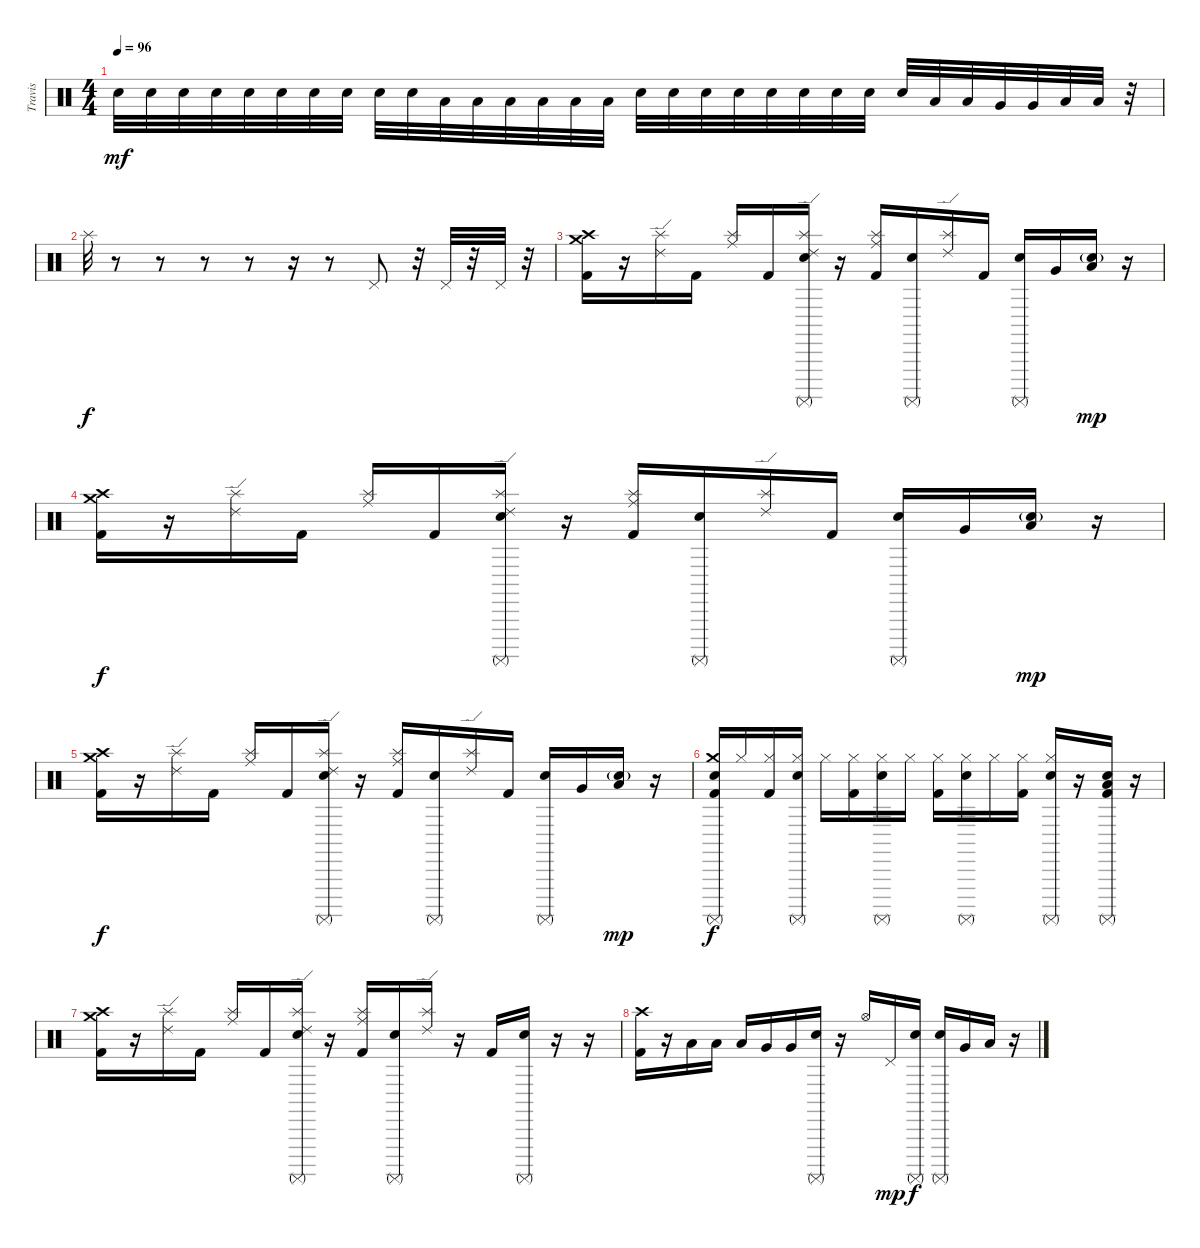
\track ("Travis" "Travis") {instrument percussion bank 127}
\staff {score}
\articulation defaults
\ts (4 4)
\tempo 96
\clef neutral
\ks c "Electric Snare (hit)".32{dy mf} "Electric Snare (hit)".32 "Electric Snare (hit)".32 "Electric Snare (hit)".32 "Electric Snare (hit)".32 "Electric Snare (hit)".32 "Electric Snare (hit)".32 "Electric Snare (hit)".32 "Electric Snare (hit)".32 "Electric Snare (hit)".32 "Low Tom (hit)".32 "Low Tom (hit)".32 "Low Tom (hit)".32 "Low Tom (hit)".32 "Low Tom (hit)".32 "Low Tom (hit)".32 "Electric Snare (hit)".32 "Electric Snare (hit)".32 "Electric Snare (hit)".32 "Electric Snare (hit)".32 "Electric Snare (hit)".32 "Electric Snare (hit)".32 "Electric Snare (hit)".32 "Electric Snare (hit)".32 "Electric Snare (hit)".32 "Low Tom (hit)".32 "Low Tom (hit)".32 "Very Low Tom (hit)".32 "Very Low Tom (hit)".32 "Low Floor Tom (hit)".32 "Low Floor Tom (hit)".32
r.32 |
"Splash (hit)".32{dy f} r.8 r.8 r.8 r.8 r.16 r.8 "Pedal Hi-Hat (hit)".8 r.32 "Pedal Hi-Hat (hit)".32 r.32 "Pedal Hi-Hat (hit)".32 r.32 |
("Crash medium (hit)" "Crash high (hit)" "Kick (hit) 2").16 r.16 ("Ride (edge) 2" "Splash (hit)").16 "Kick (hit) 2".16 ("Ride (middle)" "Splash (hit)").16 "Kick (hit) 2".16 ("Ride (edge) 2" "Splash (hit)" "Electric Snare (hit)" "Surdo (mute)").16 r.16 ("Ride (middle)" "Splash (hit)" "Kick (hit) 2").16 ("Electric Snare (hit)" "Surdo (mute)").16 ("Ride (edge) 2" "Splash (hit)").16 "Kick (hit) 2".16 ("Electric Snare (hit)" "Surdo (mute)").16 "Very Low Tom (hit)".16 ("Low Floor Tom (hit)" "Electric Snare (hit)"{g}).16{dy mp} r.16 |
("Crash medium (hit)" "Crash high (hit)" "Kick (hit) 2").16{dy f} r.16 ("Ride (edge) 2" "Splash (hit)").16 "Kick (hit) 2".16 ("Ride (middle)" "Splash (hit)").16 "Kick (hit) 2".16 ("Ride (edge) 2" "Splash (hit)" "Electric Snare (hit)" "Surdo (mute)").16 r.16 ("Ride (middle)" "Splash (hit)" "Kick (hit) 2").16 ("Electric Snare (hit)" "Surdo (mute)").16 ("Ride (edge) 2" "Splash (hit)").16 "Kick (hit) 2".16 ("Electric Snare (hit)" "Surdo (mute)").16 "Very Low Tom (hit)".16 ("Low Floor Tom (hit)" "Electric Snare (hit)"{g}).16{dy mp} r.16 |
("Crash medium (hit)" "Crash high (hit)" "Kick (hit) 2").16{dy f} r.16 ("Ride (edge) 2" "Splash (hit)").16 "Kick (hit) 2".16 ("Ride (middle)" "Splash (hit)").16 "Kick (hit) 2".16 ("Ride (edge) 2" "Splash (hit)" "Electric Snare (hit)" "Surdo (mute)").16 r.16 ("Ride (middle)" "Splash (hit)" "Kick (hit) 2").16 ("Electric Snare (hit)" "Surdo (mute)").16 ("Ride (edge) 2" "Splash (hit)").16 "Kick (hit) 2".16 ("Electric Snare (hit)" "Surdo (mute)").16 "Very Low Tom (hit)".16 ("Low Floor Tom (hit)" "Electric Snare (hit)"{g}).16{dy mp} r.16 |
("Crash medium (hit)" "Surdo (mute)" "Electric Snare (hit)" "Kick (hit) 2").16{dy f} "Hi-Hat (closed)".16 ("Hi-Hat (closed)" "Kick (hit) 2").16 ("Hi-Hat (closed)" "Electric Snare (hit)" "Surdo (mute)").16 "Hi-Hat (closed)".16 ("Hi-Hat (closed)" "Kick (hit) 2").16 ("Hi-Hat (closed)" "Electric Snare (hit)" "Surdo (mute)").16 "Hi-Hat (closed)".16 ("Hi-Hat (closed)" "Kick (hit) 2").16 ("Hi-Hat (closed)" "Electric Snare (hit)" "Surdo (mute)").16 "Hi-Hat (closed)".16 ("Hi-Hat (closed)" "Kick (hit) 2").16 ("Hi-Hat (closed)" "Electric Snare (hit)" "Surdo (mute)").16 r.16 ("Surdo (mute)" "Low Floor Tom (hit)" "Electric Snare (hit)" "Kick (hit) 2").16 r.16 |
("Crash medium (hit)" "Crash high (hit)" "Kick (hit) 2").16 r.16 ("Ride (edge) 2" "Splash (hit)").16 "Kick (hit) 2".16 ("Ride (middle)" "Splash (hit)").16 "Kick (hit) 2".16 ("Ride (edge) 2" "Splash (hit)" "Electric Snare (hit)" "Surdo (mute)").16 r.16 ("Ride (middle)" "Splash (hit)" "Kick (hit) 2").16 ("Electric Snare (hit)" "Surdo (mute)").16 ("Ride (edge) 2" "Splash (hit)").16 r.16 "Kick (hit) 2".16 ("Electric Snare (hit)" "Surdo (mute)").16 r.16 r.16 |
("Crash high (hit)" "Kick (hit) 2").16 r.16 "Low Floor Tom (hit)".16 "Low Floor Tom (hit)".16 "Low Floor Tom (hit)".16 "Very Low Tom (hit)".16 "Very Low Tom (hit)".16 ("Electric Snare (hit)" "Surdo (mute)").16 r.16 "Hi-Hat (open)".16 "Pedal Hi-Hat (hit)".16{dy mp} ("Electric Snare (hit)" "Surdo (mute)").16{dy f} ("Electric Snare (hit)" "Surdo (mute)").16 "Very Low Tom (hit)".16 "Low Floor Tom (hit)".16 r.16
